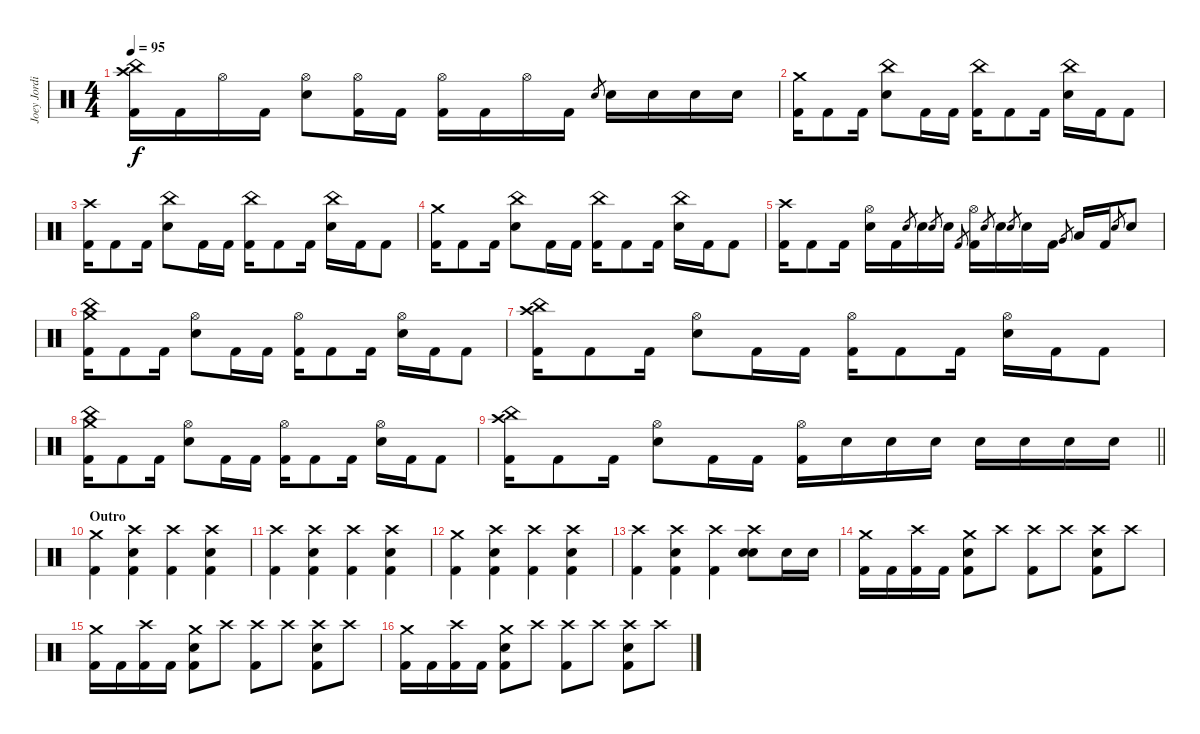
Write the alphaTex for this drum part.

\track ("Joey Jordison" "Joey Jordi") {instrument percussion}
\staff {score}
\articulation defaults
\ts (4 4)
\tempo 95
\clef neutral
\ks c
("China (hit)" "Crash high (hit)" "Kick (hit) 2").16{dy f} "Kick (hit) 2".16 "Hi-Hat (open)".16 "Kick (hit) 2".16 ("Hi-Hat (open)" "Electric Snare (hit)").8 ("Hi-Hat (open)" "Kick (hit) 2").16 "Kick (hit) 2".16 ("Hi-Hat (open)" "Kick (hit) 2").16 "Kick (hit) 2".16 "Hi-Hat (open)".16 "Kick (hit) 2".16 "Electric Snare (hit)".8{gr} "Electric Snare (hit)".16 "Electric Snare (hit)".16 "Electric Snare (hit)".16 "Electric Snare (hit)".16 |
("Crash medium (hit)" "Kick (hit) 2").16 "Kick (hit) 2".8 "Kick (hit) 2".16 ("China (hit)" "Electric Snare (hit)").8 "Kick (hit) 2".16 "Kick (hit) 2".16 ("China (hit)" "Kick (hit) 2").16 "Kick (hit) 2".8 "Kick (hit) 2".16 ("China (hit)" "Electric Snare (hit)").16 "Kick (hit) 2".16 "Kick (hit) 2".8 |
("Crash high (hit)" "Kick (hit) 2").16 "Kick (hit) 2".8 "Kick (hit) 2".16 ("China (hit)" "Electric Snare (hit)").8 "Kick (hit) 2".16 "Kick (hit) 2".16 ("China (hit)" "Kick (hit) 2").16 "Kick (hit) 2".8 "Kick (hit) 2".16 ("China (hit)" "Electric Snare (hit)").16 "Kick (hit) 2".16 "Kick (hit) 2".8 |
("Crash medium (hit)" "Kick (hit) 2").16 "Kick (hit) 2".8 "Kick (hit) 2".16 ("China (hit)" "Electric Snare (hit)").8 "Kick (hit) 2".16 "Kick (hit) 2".16 ("China (hit)" "Kick (hit) 2").16 "Kick (hit) 2".8 "Kick (hit) 2".16 ("China (hit)" "Electric Snare (hit)").16 "Kick (hit) 2".16 "Kick (hit) 2".8 |
("Crash high (hit)" "Kick (hit) 2").16 "Kick (hit) 2".8 "Kick (hit) 2".16 ("Hi-Hat (open)" "Electric Snare (hit)").16 "Kick (hit) 2".16 "Electric Snare (hit)".8{gr} "Electric Snare (hit)".16 "Electric Snare (hit)".8{gr} "Electric Snare (hit)".16 "Kick (hit) 2".8{gr} ("Hi-Hat (open)" "Kick (hit) 2").16 "Electric Snare (hit)".8{gr} "Electric Snare (hit)".16 "Electric Snare (hit)".8{gr} "Electric Snare (hit)".16 "Kick (hit) 2".16 "Very Low Tom (hit)".8{gr} "Low Floor Tom (hit)".16 "Kick (hit) 2".16 "Electric Snare (hit)".8{gr} "Electric Snare (hit)".8 |
("China (hit)" "Crash medium (hit)" "Kick (hit) 2").16 "Kick (hit) 2".8 "Kick (hit) 2".16 ("Hi-Hat (open)" "Electric Snare (hit)").8 "Kick (hit) 2".16 "Kick (hit) 2".16 ("Hi-Hat (open)" "Kick (hit) 2").16 "Kick (hit) 2".8 "Kick (hit) 2".16 ("Hi-Hat (open)" "Electric Snare (hit)").16 "Kick (hit) 2".16 "Kick (hit) 2".8 |
("China (hit)" "Crash high (hit)" "Kick (hit) 2").16 "Kick (hit) 2".8 "Kick (hit) 2".16 ("Hi-Hat (open)" "Electric Snare (hit)").8 "Kick (hit) 2".16 "Kick (hit) 2".16 ("Hi-Hat (open)" "Kick (hit) 2").16 "Kick (hit) 2".8 "Kick (hit) 2".16 ("Hi-Hat (open)" "Electric Snare (hit)").16 "Kick (hit) 2".16 "Kick (hit) 2".8 |
("China (hit)" "Crash medium (hit)" "Kick (hit) 2").16 "Kick (hit) 2".8 "Kick (hit) 2".16 ("Hi-Hat (open)" "Electric Snare (hit)").8 "Kick (hit) 2".16 "Kick (hit) 2".16 ("Hi-Hat (open)" "Kick (hit) 2").16 "Kick (hit) 2".8 "Kick (hit) 2".16 ("Hi-Hat (open)" "Electric Snare (hit)").16 "Kick (hit) 2".16 "Kick (hit) 2".8 |
\barLineRight lightlight
("China (hit)" "Crash high (hit)" "Kick (hit) 2").16 "Kick (hit) 2".8 "Kick (hit) 2".16 ("Hi-Hat (open)" "Electric Snare (hit)").8 "Kick (hit) 2".16 "Kick (hit) 2".16 ("Hi-Hat (open)" "Kick (hit) 2").16 "Electric Snare (hit)".16 "Electric Snare (hit)".16 "Electric Snare (hit)".16 "Electric Snare (hit)".16 "Electric Snare (hit)".16 "Electric Snare (hit)".16 "Electric Snare (hit)".16 |
\section ("" "Outro")
("Crash medium (hit)" "Kick (hit) 2").4 ("Crash high (hit)" "Electric Snare (hit)" "Kick (hit) 2").4 ("Crash high (hit)" "Kick (hit) 2").4 ("Crash high (hit)" "Electric Snare (hit)" "Kick (hit) 2").4 |
("Crash high (hit)" "Kick (hit) 2").4 ("Crash high (hit)" "Electric Snare (hit)" "Kick (hit) 2").4 ("Crash high (hit)" "Kick (hit) 2").4 ("Crash high (hit)" "Electric Snare (hit)" "Kick (hit) 2").4 |
("Crash medium (hit)" "Kick (hit) 2").4 ("Crash high (hit)" "Electric Snare (hit)" "Kick (hit) 2").4 ("Crash high (hit)" "Kick (hit) 2").4 ("Crash high (hit)" "Electric Snare (hit)" "Kick (hit) 2").4 |
("Crash high (hit)" "Kick (hit) 2").4 ("Crash high (hit)" "Electric Snare (hit)" "Kick (hit) 2").4 ("Crash high (hit)" "Kick (hit) 2").4 ("Crash high (hit)" "Electric Snare (hit)" "Electric Snare (hit)").8 "Electric Snare (hit)".16 "Electric Snare (hit)".16 |
("Crash medium (hit)" "Kick (hit) 2").16 "Kick (hit) 2".16 ("Crash high (hit)" "Kick (hit) 2").16 "Kick (hit) 2".16 ("Crash medium (hit)" "Electric Snare (hit)" "Kick (hit) 2").8 "Crash high (hit)".8 ("Crash high (hit)" "Kick (hit) 2").8 "Crash high (hit)".8 ("Crash high (hit)" "Electric Snare (hit)" "Kick (hit) 2").8 "Crash high (hit)".8 |
("Crash medium (hit)" "Kick (hit) 2").16 "Kick (hit) 2".16 ("Crash high (hit)" "Kick (hit) 2").16 "Kick (hit) 2".16 ("Crash medium (hit)" "Electric Snare (hit)" "Kick (hit) 2").8 "Crash high (hit)".8 ("Crash high (hit)" "Kick (hit) 2").8 "Crash high (hit)".8 ("Crash high (hit)" "Electric Snare (hit)" "Kick (hit) 2").8 "Crash high (hit)".8 |
("Crash medium (hit)" "Kick (hit) 2").16 "Kick (hit) 2".16 ("Crash high (hit)" "Kick (hit) 2").16 "Kick (hit) 2".16 ("Crash medium (hit)" "Electric Snare (hit)" "Kick (hit) 2").8 "Crash high (hit)".8 ("Crash high (hit)" "Kick (hit) 2").8 "Crash high (hit)".8 ("Crash high (hit)" "Electric Snare (hit)" "Kick (hit) 2").8 "Crash high (hit)".8
